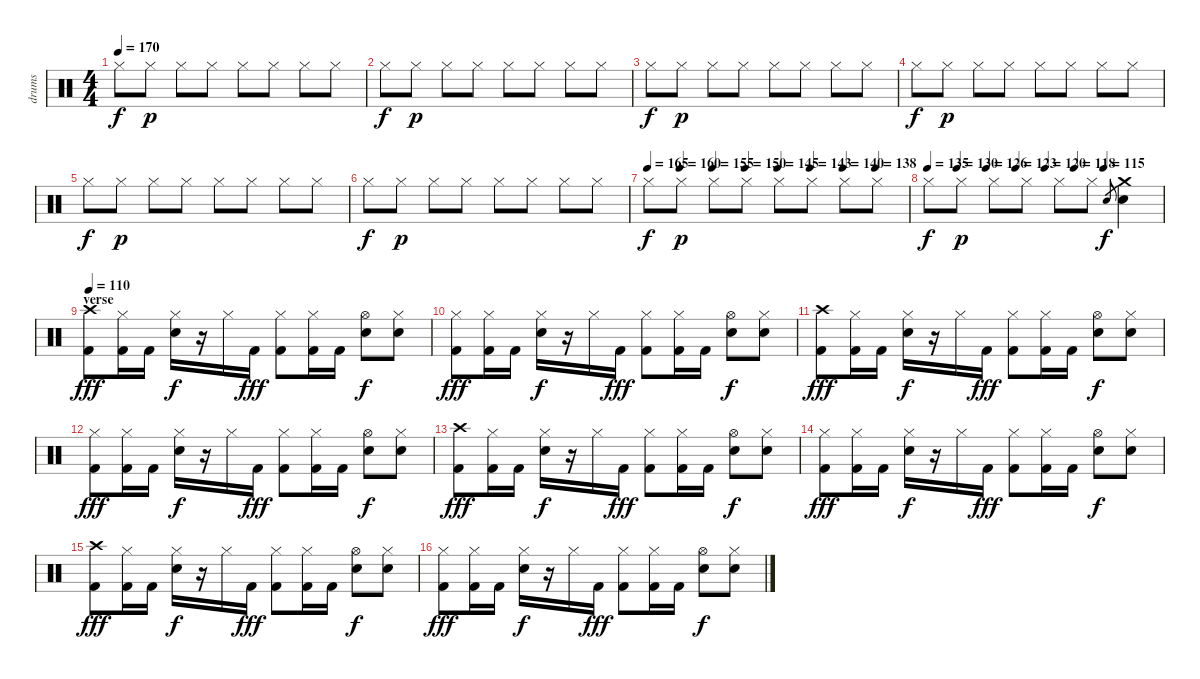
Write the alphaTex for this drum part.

\track ("drums" "drums") {instrument percussion}
\staff {score}
\articulation defaults
\ts (4 4)
\tempo 170
\clef neutral
\ks c "Hi-Hat (closed)".8{dy f} "Hi-Hat (closed)".8{dy p} "Hi-Hat (closed)".8 "Hi-Hat (closed)".8 "Hi-Hat (closed)".8 "Hi-Hat (closed)".8 "Hi-Hat (closed)".8 "Hi-Hat (closed)".8
|
"Hi-Hat (closed)".8{dy f} "Hi-Hat (closed)".8{dy p} "Hi-Hat (closed)".8 "Hi-Hat (closed)".8 "Hi-Hat (closed)".8 "Hi-Hat (closed)".8 "Hi-Hat (closed)".8 "Hi-Hat (closed)".8 |
"Hi-Hat (closed)".8{dy f} "Hi-Hat (closed)".8{dy p} "Hi-Hat (closed)".8 "Hi-Hat (closed)".8 "Hi-Hat (closed)".8 "Hi-Hat (closed)".8 "Hi-Hat (closed)".8 "Hi-Hat (closed)".8 |
"Hi-Hat (closed)".8{dy f} "Hi-Hat (closed)".8{dy p} "Hi-Hat (closed)".8 "Hi-Hat (closed)".8 "Hi-Hat (closed)".8 "Hi-Hat (closed)".8 "Hi-Hat (closed)".8 "Hi-Hat (closed)".8 |
"Hi-Hat (closed)".8{dy f} "Hi-Hat (closed)".8{dy p} "Hi-Hat (closed)".8 "Hi-Hat (closed)".8 "Hi-Hat (closed)".8 "Hi-Hat (closed)".8 "Hi-Hat (closed)".8 "Hi-Hat (closed)".8 |
"Hi-Hat (closed)".8{dy f} "Hi-Hat (closed)".8{dy p} "Hi-Hat (closed)".8 "Hi-Hat (closed)".8 "Hi-Hat (closed)".8 "Hi-Hat (closed)".8 "Hi-Hat (closed)".8 "Hi-Hat (closed)".8 |
\tempo 165
\tempo (160 0.125)
\tempo (155 0.25)
\tempo (150 0.375)
\tempo (145 0.5)
\tempo (143 0.625)
\tempo (140 0.75)
\tempo (138 0.875)
"Hi-Hat (closed)".8{dy f} "Hi-Hat (closed)".8{dy p} "Hi-Hat (closed)".8 "Hi-Hat (closed)".8 "Hi-Hat (closed)".8 "Hi-Hat (closed)".8 "Hi-Hat (closed)".8 "Hi-Hat (closed)".8 |
\tempo 135
\tempo (130 0.125)
\tempo (126 0.25)
\tempo (123 0.375)
\tempo (120 0.5)
\tempo (118 0.625)
\tempo (115 0.75)
"Hi-Hat (closed)".8{dy f} "Hi-Hat (closed)".8{dy p} "Hi-Hat (closed)".8 "Hi-Hat (closed)".8 "Hi-Hat (closed)".8 "Hi-Hat (closed)".8 "Snare (hit) 2".8{gr dy f} ("Crash medium (hit)" "Snare (hit) 2").4 |
\section ("" "verse")
\tempo 110
("Crash high (hit)" "Kick (hit) 2").8{dy fff} ("Hi-Hat (closed)" "Kick (hit) 2").16 "Kick (hit) 2".16 ("Hi-Hat (closed)" "Snare (hit) 2").16{dy f} r.16 "Hi-Hat (closed)".16 "Kick (hit) 2".16{dy fff} ("Hi-Hat (closed)" "Kick (hit) 2").8 ("Hi-Hat (closed)" "Kick (hit) 2").16 "Kick (hit) 2".16 ("Hi-Hat (open)" "Snare (hit) 2").8{dy f} ("Hi-Hat (closed)" "Snare (hit) 2").8 |
("Hi-Hat (closed)" "Kick (hit) 2").8{dy fff} ("Hi-Hat (closed)" "Kick (hit) 2").16 "Kick (hit) 2".16 ("Hi-Hat (closed)" "Snare (hit) 2").16{dy f} r.16 "Hi-Hat (closed)".16 "Kick (hit) 2".16{dy fff} ("Hi-Hat (closed)" "Kick (hit) 2").8 ("Hi-Hat (closed)" "Kick (hit) 2").16 "Kick (hit) 2".16 ("Hi-Hat (open)" "Snare (hit) 2").8{dy f} ("Hi-Hat (closed)" "Snare (hit) 2").8 |
("Crash high (hit)" "Kick (hit) 2").8{dy fff} ("Hi-Hat (closed)" "Kick (hit) 2").16 "Kick (hit) 2".16 ("Hi-Hat (closed)" "Snare (hit) 2").16{dy f} r.16 "Hi-Hat (closed)".16 "Kick (hit) 2".16{dy fff} ("Hi-Hat (closed)" "Kick (hit) 2").8 ("Hi-Hat (closed)" "Kick (hit) 2").16 "Kick (hit) 2".16 ("Hi-Hat (open)" "Snare (hit) 2").8{dy f} ("Hi-Hat (closed)" "Snare (hit) 2").8 |
("Hi-Hat (closed)" "Kick (hit) 2").8{dy fff} ("Hi-Hat (closed)" "Kick (hit) 2").16 "Kick (hit) 2".16 ("Hi-Hat (closed)" "Snare (hit) 2").16{dy f} r.16 "Hi-Hat (closed)".16 "Kick (hit) 2".16{dy fff} ("Hi-Hat (closed)" "Kick (hit) 2").8 ("Hi-Hat (closed)" "Kick (hit) 2").16 "Kick (hit) 2".16 ("Hi-Hat (open)" "Snare (hit) 2").8{dy f} ("Hi-Hat (closed)" "Snare (hit) 2").8 |
("Crash high (hit)" "Kick (hit) 2").8{dy fff} ("Hi-Hat (closed)" "Kick (hit) 2").16 "Kick (hit) 2".16 ("Hi-Hat (closed)" "Snare (hit) 2").16{dy f} r.16 "Hi-Hat (closed)".16 "Kick (hit) 2".16{dy fff} ("Hi-Hat (closed)" "Kick (hit) 2").8 ("Hi-Hat (closed)" "Kick (hit) 2").16 "Kick (hit) 2".16 ("Hi-Hat (open)" "Snare (hit) 2").8{dy f} ("Hi-Hat (closed)" "Snare (hit) 2").8 |
("Hi-Hat (closed)" "Kick (hit) 2").8{dy fff} ("Hi-Hat (closed)" "Kick (hit) 2").16 "Kick (hit) 2".16 ("Hi-Hat (closed)" "Snare (hit) 2").16{dy f} r.16 "Hi-Hat (closed)".16 "Kick (hit) 2".16{dy fff} ("Hi-Hat (closed)" "Kick (hit) 2").8 ("Hi-Hat (closed)" "Kick (hit) 2").16 "Kick (hit) 2".16 ("Hi-Hat (open)" "Snare (hit) 2").8{dy f} ("Hi-Hat (closed)" "Snare (hit) 2").8 |
("Crash high (hit)" "Kick (hit) 2").8{dy fff} ("Hi-Hat (closed)" "Kick (hit) 2").16 "Kick (hit) 2".16 ("Hi-Hat (closed)" "Snare (hit) 2").16{dy f} r.16 "Hi-Hat (closed)".16 "Kick (hit) 2".16{dy fff} ("Hi-Hat (closed)" "Kick (hit) 2").8 ("Hi-Hat (closed)" "Kick (hit) 2").16 "Kick (hit) 2".16 ("Hi-Hat (open)" "Snare (hit) 2").8{dy f} ("Hi-Hat (closed)" "Snare (hit) 2").8 |
("Hi-Hat (closed)" "Kick (hit) 2").8{dy fff} ("Hi-Hat (closed)" "Kick (hit) 2").16 "Kick (hit) 2".16 ("Hi-Hat (closed)" "Snare (hit) 2").16{dy f} r.16 "Hi-Hat (closed)".16 "Kick (hit) 2".16{dy fff} ("Hi-Hat (closed)" "Kick (hit) 2").8 ("Hi-Hat (closed)" "Kick (hit) 2").16 "Kick (hit) 2".16 ("Hi-Hat (open)" "Snare (hit) 2").8{dy f} ("Hi-Hat (closed)" "Snare (hit) 2").8
